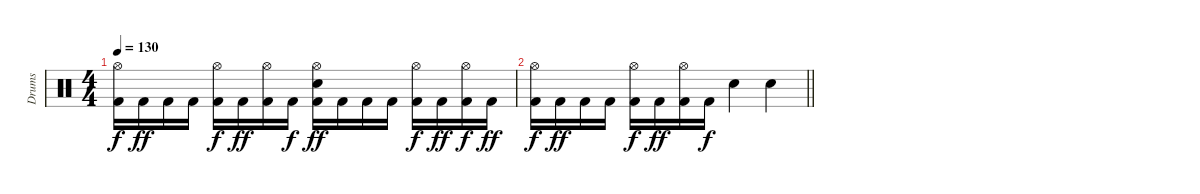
\track ("Drums" "Drums") {instrument percussion}
\staff {score}
\articulation defaults
\ts (4 4)
\tempo 130
\clef neutral
\ks c
("Hi-Hat (open)" "Kick (hit) 2").16{dy f} "Kick (hit) 2".16{dy ff} "Kick (hit) 2".16 "Kick (hit) 2".16 ("Hi-Hat (open)" "Kick (hit) 2").16{dy f} "Kick (hit) 2".16{dy ff} ("Hi-Hat (open)" "Kick (hit) 2").16 "Kick (hit) 2".16{dy f} ("Hi-Hat (open)" "Snare (hit) 2" "Kick (hit) 2").16{dy ff} "Kick (hit) 2".16 "Kick (hit) 2".16 "Kick (hit) 2".16 ("Hi-Hat (open)" "Kick (hit) 2").16{dy f} "Kick (hit) 2".16{dy ff} ("Hi-Hat (open)" "Kick (hit) 2").16{dy f} "Kick (hit) 2".16{dy ff} |
\barLineRight lightlight
("Hi-Hat (open)" "Kick (hit) 2").16{dy f} "Kick (hit) 2".16{dy ff} "Kick (hit) 2".16 "Kick (hit) 2".16 ("Hi-Hat (open)" "Kick (hit) 2").16{dy f} "Kick (hit) 2".16{dy ff} ("Hi-Hat (open)" "Kick (hit) 2").16 "Kick (hit) 2".16{dy f} "Snare (hit) 2".4 "Snare (hit) 2".4
